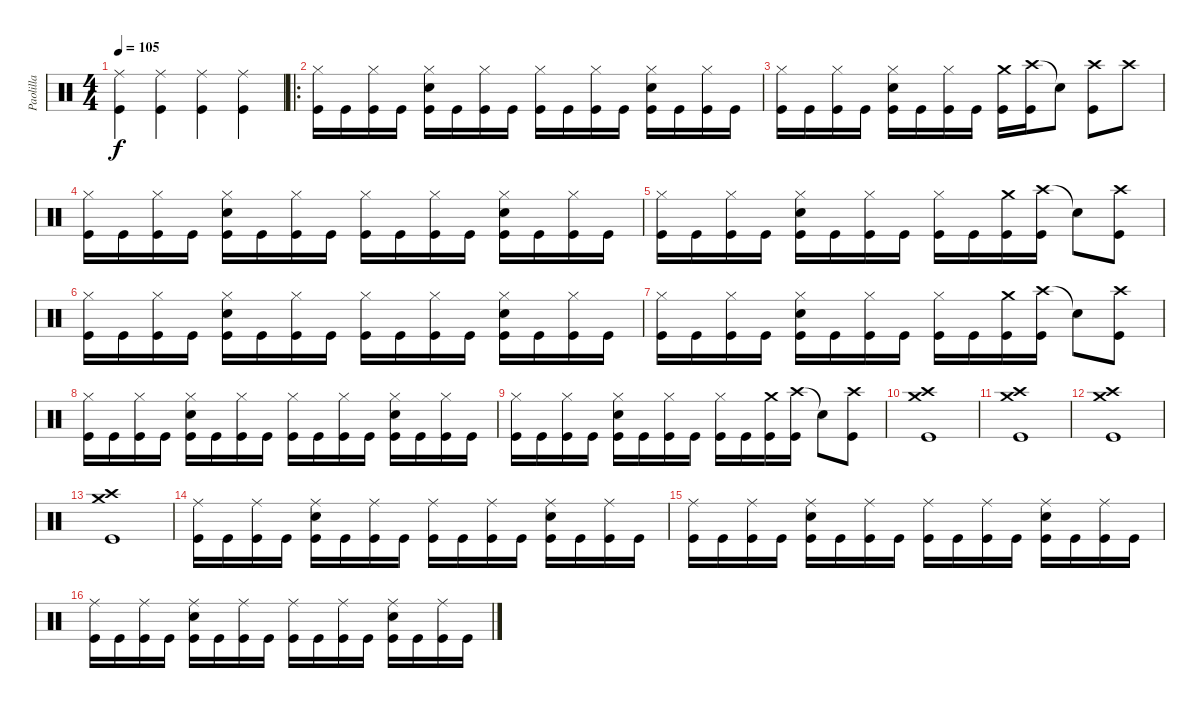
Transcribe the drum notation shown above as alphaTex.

\track ("Paolilla" "Paolilla") {instrument percussion}
\staff {score}
\articulation defaults
\ts (4 4)
\tempo 105
\clef neutral
\ks c
("Ride (middle)" "Kick (hit)").4{dy f} ("Ride (middle)" "Kick (hit)").4 ("Ride (middle)" "Kick (hit)").4 ("Ride (middle)" "Kick (hit)").4 |
\ro
("Hi-Hat (closed)" "Kick (hit)").16 "Kick (hit)".16 ("Hi-Hat (closed)" "Kick (hit)").16 "Kick (hit)".16 ("Hi-Hat (closed)" "Snare (hit) 2" "Kick (hit)").16 "Kick (hit)".16 ("Hi-Hat (closed)" "Kick (hit)").16 "Kick (hit)".16 ("Hi-Hat (closed)" "Kick (hit)").16 "Kick (hit)".16 ("Hi-Hat (closed)" "Kick (hit)").16 "Kick (hit)".16 ("Hi-Hat (closed)" "Snare (hit) 2" "Kick (hit)").16 "Kick (hit)".16 ("Hi-Hat (closed)" "Kick (hit)").16 "Kick (hit)".16 |
("Hi-Hat (closed)" "Kick (hit)").16 "Kick (hit)".16 ("Hi-Hat (closed)" "Kick (hit)").16 "Kick (hit)".16 ("Hi-Hat (closed)" "Snare (hit) 2" "Kick (hit)").16 "Kick (hit)".16 ("Hi-Hat (closed)" "Kick (hit)").16 "Kick (hit)".16 ("Crash medium (hit)" "Kick (hit)").16 ("Crash high (hit)" "Kick (hit)").16 "Snare (hit)"{t}.8 ("Crash high (hit)" "Kick (hit)").8 "Crash high (hit)".8 |
("Hi-Hat (closed)" "Kick (hit)").16 "Kick (hit)".16 ("Hi-Hat (closed)" "Kick (hit)").16 "Kick (hit)".16 ("Hi-Hat (closed)" "Snare (hit) 2" "Kick (hit)").16 "Kick (hit)".16 ("Hi-Hat (closed)" "Kick (hit)").16 "Kick (hit)".16 ("Hi-Hat (closed)" "Kick (hit)").16 "Kick (hit)".16 ("Hi-Hat (closed)" "Kick (hit)").16 "Kick (hit)".16 ("Hi-Hat (closed)" "Snare (hit) 2" "Kick (hit)").16 "Kick (hit)".16 ("Hi-Hat (closed)" "Kick (hit)").16 "Kick (hit)".16 |
("Hi-Hat (closed)" "Kick (hit)").16 "Kick (hit)".16 ("Hi-Hat (closed)" "Kick (hit)").16 "Kick (hit)".16 ("Hi-Hat (closed)" "Snare (hit) 2" "Kick (hit)").16 "Kick (hit)".16 ("Hi-Hat (closed)" "Kick (hit)").16 "Kick (hit)".16 ("Hi-Hat (closed)" "Kick (hit)").16 "Kick (hit)".16 ("Crash medium (hit)" "Kick (hit)").16 ("Crash high (hit)" "Kick (hit)").16 "Snare (hit)"{t}.8 ("Crash high (hit)" "Kick (hit)").8 |
("Hi-Hat (closed)" "Kick (hit)").16 "Kick (hit)".16 ("Hi-Hat (closed)" "Kick (hit)").16 "Kick (hit)".16 ("Hi-Hat (closed)" "Snare (hit) 2" "Kick (hit)").16 "Kick (hit)".16 ("Hi-Hat (closed)" "Kick (hit)").16 "Kick (hit)".16 ("Hi-Hat (closed)" "Kick (hit)").16 "Kick (hit)".16 ("Hi-Hat (closed)" "Kick (hit)").16 "Kick (hit)".16 ("Hi-Hat (closed)" "Snare (hit) 2" "Kick (hit)").16 "Kick (hit)".16 ("Hi-Hat (closed)" "Kick (hit)").16 "Kick (hit)".16 |
("Hi-Hat (closed)" "Kick (hit)").16 "Kick (hit)".16 ("Hi-Hat (closed)" "Kick (hit)").16 "Kick (hit)".16 ("Hi-Hat (closed)" "Snare (hit) 2" "Kick (hit)").16 "Kick (hit)".16 ("Hi-Hat (closed)" "Kick (hit)").16 "Kick (hit)".16 ("Hi-Hat (closed)" "Kick (hit)").16 "Kick (hit)".16 ("Crash medium (hit)" "Kick (hit)").16 ("Crash high (hit)" "Kick (hit)").16 "Snare (hit)"{t}.8 ("Crash high (hit)" "Kick (hit)").8 |
("Hi-Hat (closed)" "Kick (hit)").16 "Kick (hit)".16 ("Hi-Hat (closed)" "Kick (hit)").16 "Kick (hit)".16 ("Hi-Hat (closed)" "Snare (hit) 2" "Kick (hit)").16 "Kick (hit)".16 ("Hi-Hat (closed)" "Kick (hit)").16 "Kick (hit)".16 ("Hi-Hat (closed)" "Kick (hit)").16 "Kick (hit)".16 ("Hi-Hat (closed)" "Kick (hit)").16 "Kick (hit)".16 ("Hi-Hat (closed)" "Snare (hit) 2" "Kick (hit)").16 "Kick (hit)".16 ("Hi-Hat (closed)" "Kick (hit)").16 "Kick (hit)".16 |
("Hi-Hat (closed)" "Kick (hit)").16 "Kick (hit)".16 ("Hi-Hat (closed)" "Kick (hit)").16 "Kick (hit)".16 ("Hi-Hat (closed)" "Snare (hit) 2" "Kick (hit)").16 "Kick (hit)".16 ("Hi-Hat (closed)" "Kick (hit)").16 "Kick (hit)".16 ("Hi-Hat (closed)" "Kick (hit)").16 "Kick (hit)".16 ("Crash medium (hit)" "Kick (hit)").16 ("Crash high (hit)" "Kick (hit)").16 "Snare (hit)"{t}.8 ("Crash high (hit)" "Kick (hit)").8 |
("Crash high (hit)" "Crash medium (hit)" "Kick (hit)").1 |
("Crash high (hit)" "Crash medium (hit)" "Kick (hit)").1 |
("Crash high (hit)" "Crash medium (hit)" "Kick (hit)").1 |
("Crash high (hit)" "Crash medium (hit)" "Kick (hit)").1 |
("Ride (middle)" "Kick (hit)").16 "Kick (hit)".16 ("Ride (middle)" "Kick (hit)").16 "Kick (hit)".16 ("Ride (middle)" "Snare (hit) 2" "Kick (hit)").16 "Kick (hit)".16 ("Ride (middle)" "Kick (hit)").16 "Kick (hit)".16 ("Ride (middle)" "Kick (hit)").16 "Kick (hit)".16 ("Ride (middle)" "Kick (hit)").16 "Kick (hit)".16 ("Ride (middle)" "Snare (hit) 2" "Kick (hit)").16 "Kick (hit)".16 ("Ride (middle)" "Kick (hit)").16 "Kick (hit)".16 |
("Ride (middle)" "Kick (hit)").16 "Kick (hit)".16 ("Ride (middle)" "Kick (hit)").16 "Kick (hit)".16 ("Ride (middle)" "Snare (hit) 2" "Kick (hit)").16 "Kick (hit)".16 ("Ride (middle)" "Kick (hit)").16 "Kick (hit)".16 ("Ride (middle)" "Kick (hit)").16 "Kick (hit)".16 ("Ride (middle)" "Kick (hit)").16 "Kick (hit)".16 ("Ride (middle)" "Snare (hit) 2" "Kick (hit)").16 "Kick (hit)".16 ("Ride (middle)" "Kick (hit)").16 "Kick (hit)".16 |
("Ride (middle)" "Kick (hit)").16 "Kick (hit)".16 ("Ride (middle)" "Kick (hit)").16 "Kick (hit)".16 ("Ride (middle)" "Snare (hit) 2" "Kick (hit)").16 "Kick (hit)".16 ("Ride (middle)" "Kick (hit)").16 "Kick (hit)".16 ("Ride (middle)" "Kick (hit)").16 "Kick (hit)".16 ("Ride (middle)" "Kick (hit)").16 "Kick (hit)".16 ("Ride (middle)" "Snare (hit) 2" "Kick (hit)").16 "Kick (hit)".16 ("Ride (middle)" "Kick (hit)").16 "Kick (hit)".16
